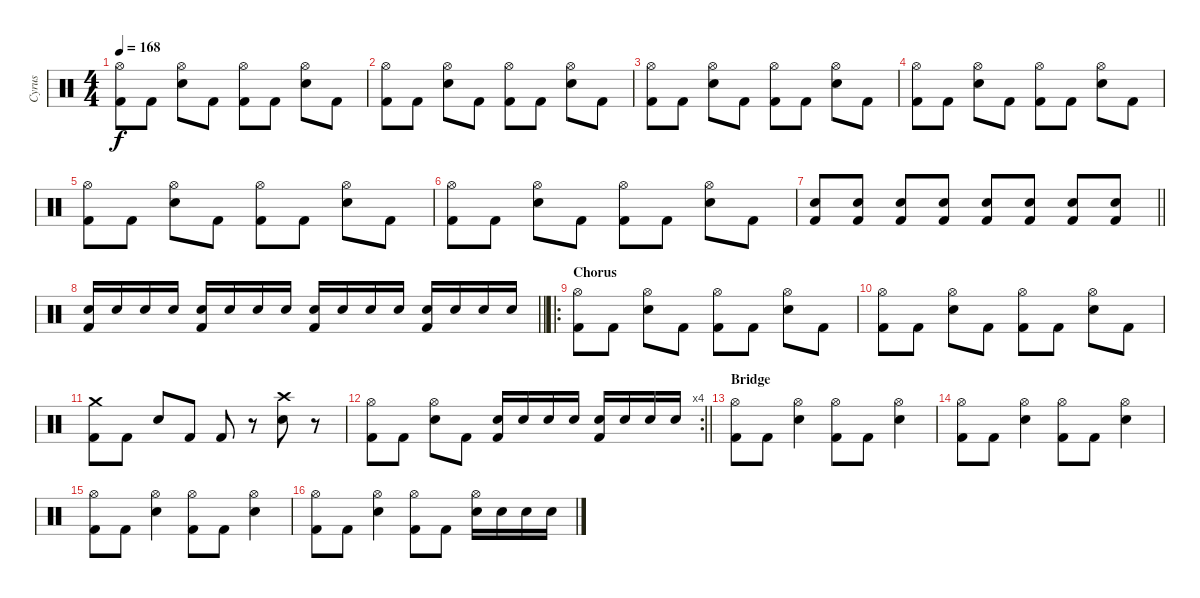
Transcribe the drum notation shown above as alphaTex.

\track ("Cyrus" "Cyrus") {instrument percussion}
\staff {score}
\articulation defaults
\ts (4 4)
\tempo 168
\clef neutral
\ks c
("Hi-Hat (open)" "Kick (hit) 2").8{dy f} "Kick (hit) 2".8 ("Hi-Hat (open)" "Snare (hit) 2").8 "Kick (hit) 2".8 ("Hi-Hat (open)" "Kick (hit) 2").8 "Kick (hit) 2".8 ("Hi-Hat (open)" "Snare (hit) 2").8 "Kick (hit) 2".8 |
("Hi-Hat (open)" "Kick (hit) 2").8 "Kick (hit) 2".8 ("Hi-Hat (open)" "Snare (hit) 2").8 "Kick (hit) 2".8 ("Hi-Hat (open)" "Kick (hit) 2").8 "Kick (hit) 2".8 ("Hi-Hat (open)" "Snare (hit) 2").8 "Kick (hit) 2".8 |
("Hi-Hat (open)" "Kick (hit) 2").8 "Kick (hit) 2".8 ("Hi-Hat (open)" "Snare (hit) 2").8 "Kick (hit) 2".8 ("Hi-Hat (open)" "Kick (hit) 2").8 "Kick (hit) 2".8 ("Hi-Hat (open)" "Snare (hit) 2").8 "Kick (hit) 2".8 |
("Hi-Hat (open)" "Kick (hit) 2").8 "Kick (hit) 2".8 ("Hi-Hat (open)" "Snare (hit) 2").8 "Kick (hit) 2".8 ("Hi-Hat (open)" "Kick (hit) 2").8 "Kick (hit) 2".8 ("Hi-Hat (open)" "Snare (hit) 2").8 "Kick (hit) 2".8 |
("Hi-Hat (open)" "Kick (hit) 2").8 "Kick (hit) 2".8 ("Hi-Hat (open)" "Snare (hit) 2").8 "Kick (hit) 2".8 ("Hi-Hat (open)" "Kick (hit) 2").8 "Kick (hit) 2".8 ("Hi-Hat (open)" "Snare (hit) 2").8 "Kick (hit) 2".8 |
("Hi-Hat (open)" "Kick (hit) 2").8 "Kick (hit) 2".8 ("Hi-Hat (open)" "Snare (hit) 2").8 "Kick (hit) 2".8 ("Hi-Hat (open)" "Kick (hit) 2").8 "Kick (hit) 2".8 ("Hi-Hat (open)" "Snare (hit) 2").8 "Kick (hit) 2".8 |
\barLineRight lightlight
("Snare (hit) 2" "Kick (hit) 2").8 ("Snare (hit) 2" "Kick (hit) 2").8 ("Snare (hit) 2" "Kick (hit) 2").8 ("Snare (hit) 2" "Kick (hit) 2").8 ("Snare (hit) 2" "Kick (hit) 2").8 ("Snare (hit) 2" "Kick (hit) 2").8 ("Snare (hit) 2" "Kick (hit) 2").8 ("Snare (hit) 2" "Kick (hit) 2").8 |
\barLineRight lightlight
("Snare (hit) 2" "Kick (hit) 2").16 "Snare (hit) 2".16 "Snare (hit) 2".16 "Snare (hit) 2".16 ("Snare (hit) 2" "Kick (hit) 2").16 "Snare (hit) 2".16 "Snare (hit) 2".16 "Snare (hit) 2".16 ("Snare (hit) 2" "Kick (hit) 2").16 "Snare (hit) 2".16 "Snare (hit) 2".16 "Snare (hit) 2".16 ("Snare (hit) 2" "Kick (hit) 2").16 "Snare (hit) 2".16 "Snare (hit) 2".16 "Snare (hit) 2".16 |
\ro
\section ("" "Chorus")
("Hi-Hat (open)" "Kick (hit) 2").8 "Kick (hit) 2".8 ("Hi-Hat (open)" "Snare (hit) 2").8 "Kick (hit) 2".8 ("Hi-Hat (open)" "Kick (hit) 2").8 "Kick (hit) 2".8 ("Hi-Hat (open)" "Snare (hit) 2").8 "Kick (hit) 2".8 |
("Hi-Hat (open)" "Kick (hit) 2").8 "Kick (hit) 2".8 ("Hi-Hat (open)" "Snare (hit) 2").8 "Kick (hit) 2".8 ("Hi-Hat (open)" "Kick (hit) 2").8 "Kick (hit) 2".8 ("Hi-Hat (open)" "Snare (hit) 2").8 "Kick (hit) 2".8 |
("Crash medium (hit)" "Kick (hit) 2").8 "Kick (hit) 2".8 "Snare (hit) 2".8 "Kick (hit) 2".8 "Kick (hit) 2".8 r.8 ("Crash high (hit)" "Snare (hit) 2").8 r.8 |
\rc 4
\barLineRight lightlight
("Hi-Hat (open)" "Kick (hit) 2").8 "Kick (hit) 2".8 ("Hi-Hat (open)" "Snare (hit) 2").8 "Kick (hit) 2".8 ("Snare (hit) 2" "Kick (hit) 2").16 "Snare (hit) 2".16 "Snare (hit) 2".16 "Snare (hit) 2".16 ("Snare (hit) 2" "Kick (hit) 2").16 "Snare (hit) 2".16 "Snare (hit) 2".16 "Snare (hit) 2".16 |
\section ("" "Bridge")
("Hi-Hat (open)" "Kick (hit) 2").8 "Kick (hit) 2".8 ("Hi-Hat (open)" "Snare (hit) 2").4 ("Hi-Hat (open)" "Kick (hit) 2").8 "Kick (hit) 2".8 ("Hi-Hat (open)" "Snare (hit) 2").4 |
("Hi-Hat (open)" "Kick (hit) 2").8 "Kick (hit) 2".8 ("Hi-Hat (open)" "Snare (hit) 2").4 ("Hi-Hat (open)" "Kick (hit) 2").8 "Kick (hit) 2".8 ("Hi-Hat (open)" "Snare (hit) 2").4 |
("Hi-Hat (open)" "Kick (hit) 2").8 "Kick (hit) 2".8 ("Hi-Hat (open)" "Snare (hit) 2").4 ("Hi-Hat (open)" "Kick (hit) 2").8 "Kick (hit) 2".8 ("Hi-Hat (open)" "Snare (hit) 2").4 |
("Hi-Hat (open)" "Kick (hit) 2").8 "Kick (hit) 2".8 ("Hi-Hat (open)" "Snare (hit) 2").4 ("Hi-Hat (open)" "Kick (hit) 2").8 "Kick (hit) 2".8 ("Hi-Hat (open)" "Snare (hit) 2").16 "Snare (hit) 2".16 "Snare (hit) 2".16 "Snare (hit) 2".16
